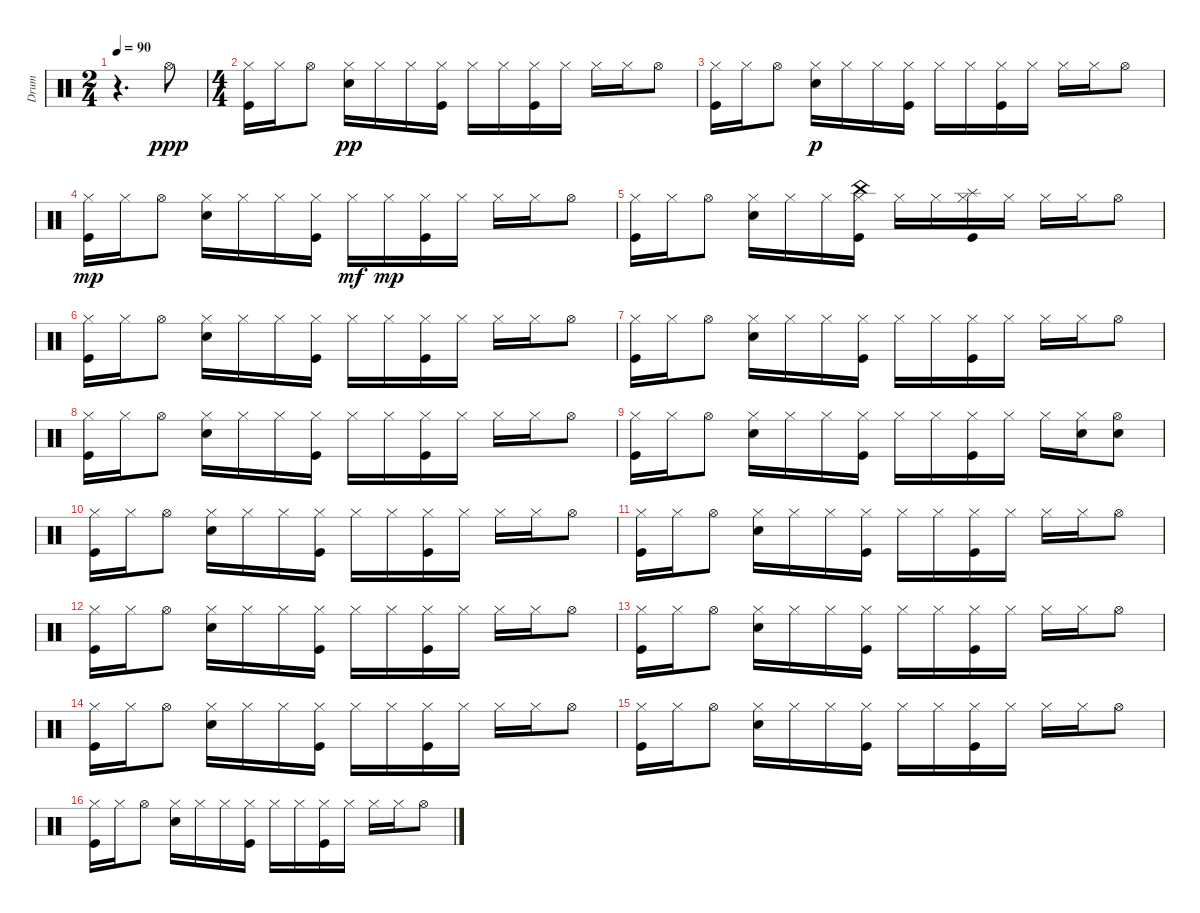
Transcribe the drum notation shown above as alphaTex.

\track ("Drum" "Drum") {instrument percussion}
\staff {score}
\articulation defaults
\ts (2 4)
\tempo 90
\clef neutral
\ks c
r.4{d dy ppp} "Hi-Hat (open)".8 |
\ts (4 4)
("Hi-Hat (closed)" "Kick (hit)").16 "Hi-Hat (closed)".16 "Hi-Hat (open)".8 ("Hi-Hat (closed)" "Snare (hit) 2").16{dy pp} "Hi-Hat (closed)".16 "Hi-Hat (closed)".16 ("Hi-Hat (closed)" "Kick (hit)").16 "Hi-Hat (closed)".16 "Hi-Hat (closed)".16 ("Hi-Hat (closed)" "Kick (hit)").16 "Hi-Hat (closed)".16 "Hi-Hat (closed)".16 "Hi-Hat (closed)".16 "Hi-Hat (open)".8 |
("Kick (hit)" "Hi-Hat (closed)").16 "Hi-Hat (closed)".16 "Hi-Hat (open)".8 ("Snare (hit) 2" "Hi-Hat (closed)").16{dy p} "Hi-Hat (closed)".16 "Hi-Hat (closed)".16 ("Kick (hit)" "Hi-Hat (closed)").16 "Hi-Hat (closed)".16 "Hi-Hat (closed)".16 ("Kick (hit)" "Hi-Hat (closed)").16 "Hi-Hat (closed)".16 "Hi-Hat (closed)".16 "Hi-Hat (closed)".16 "Hi-Hat (open)".8 |
("Hi-Hat (closed)" "Kick (hit)").16{dy mp} "Hi-Hat (closed)".16 "Hi-Hat (open)".8 ("Hi-Hat (closed)" "Snare (hit) 2").16 "Hi-Hat (closed)".16 "Hi-Hat (closed)".16 ("Hi-Hat (closed)" "Kick (hit)").16 "Hi-Hat (closed)".16{dy mf} "Hi-Hat (closed)".16{dy mp} ("Hi-Hat (closed)" "Kick (hit)").16 "Hi-Hat (closed)".16 "Hi-Hat (closed)".16 "Hi-Hat (closed)".16 "Hi-Hat (open)".8 |
("Hi-Hat (closed)" "Kick (hit)").16 "Hi-Hat (closed)".16 "Hi-Hat (open)".8 ("Hi-Hat (closed)" "Snare (hit) 2").16 "Hi-Hat (closed)".16 "Hi-Hat (closed)".16 ("China (hit)" "Hi-Hat (closed)" "Kick (hit)").16 "Hi-Hat (closed)".16 "Hi-Hat (closed)".16 ("Splash (hit)" "Hi-Hat (closed)" "Kick (hit)").16 "Hi-Hat (closed)".16 "Hi-Hat (closed)".16 "Hi-Hat (closed)".16 "Hi-Hat (open)".8 |
("Hi-Hat (closed)" "Kick (hit)").16 "Hi-Hat (closed)".16 "Hi-Hat (open)".8 ("Hi-Hat (closed)" "Snare (hit) 2").16 "Hi-Hat (closed)".16 "Hi-Hat (closed)".16 ("Kick (hit)" "Hi-Hat (closed)").16 "Hi-Hat (closed)".16 "Hi-Hat (closed)".16 ("Kick (hit)" "Hi-Hat (closed)").16 "Hi-Hat (closed)".16 "Hi-Hat (closed)".16 "Hi-Hat (closed)".16 "Hi-Hat (open)".8 |
("Kick (hit)" "Hi-Hat (closed)").16 "Hi-Hat (closed)".16 "Hi-Hat (open)".8 ("Hi-Hat (closed)" "Snare (hit) 2").16 "Hi-Hat (closed)".16 "Hi-Hat (closed)".16 ("Kick (hit)" "Hi-Hat (closed)").16 "Hi-Hat (closed)".16 "Hi-Hat (closed)".16 ("Kick (hit)" "Hi-Hat (closed)").16 "Hi-Hat (closed)".16 "Hi-Hat (closed)".16 "Hi-Hat (closed)".16 "Hi-Hat (open)".8 |
("Kick (hit)" "Hi-Hat (closed)").16 "Hi-Hat (closed)".16 "Hi-Hat (open)".8 ("Snare (hit) 2" "Hi-Hat (closed)").16 "Hi-Hat (closed)".16 "Hi-Hat (closed)".16 ("Kick (hit)" "Hi-Hat (closed)").16 "Hi-Hat (closed)".16 "Hi-Hat (closed)".16 ("Kick (hit)" "Hi-Hat (closed)").16 "Hi-Hat (closed)".16 "Hi-Hat (closed)".16 "Hi-Hat (closed)".16 "Hi-Hat (open)".8 |
("Hi-Hat (closed)" "Kick (hit)").16 "Hi-Hat (closed)".16 "Hi-Hat (open)".8 ("Hi-Hat (closed)" "Snare (hit) 2").16 "Hi-Hat (closed)".16 "Hi-Hat (closed)".16 ("Hi-Hat (closed)" "Kick (hit)").16 "Hi-Hat (closed)".16 "Hi-Hat (closed)".16 ("Hi-Hat (closed)" "Kick (hit)").16 "Hi-Hat (closed)".16 "Hi-Hat (closed)".16 ("Snare (hit) 2" "Hi-Hat (closed)").16 ("Snare (hit) 2" "Hi-Hat (open)").8 |
("Kick (hit)" "Hi-Hat (closed)").16 "Hi-Hat (closed)".16 "Hi-Hat (open)".8 ("Hi-Hat (closed)" "Snare (hit) 2").16 "Hi-Hat (closed)".16 "Hi-Hat (closed)".16 ("Hi-Hat (closed)" "Kick (hit)").16 "Hi-Hat (closed)".16 "Hi-Hat (closed)".16 ("Hi-Hat (closed)" "Kick (hit)").16 "Hi-Hat (closed)".16 "Hi-Hat (closed)".16 "Hi-Hat (closed)".16 "Hi-Hat (open)".8 |
("Kick (hit)" "Hi-Hat (closed)").16 "Hi-Hat (closed)".16 "Hi-Hat (open)".8 ("Snare (hit) 2" "Hi-Hat (closed)").16 "Hi-Hat (closed)".16 "Hi-Hat (closed)".16 ("Kick (hit)" "Hi-Hat (closed)").16 "Hi-Hat (closed)".16 "Hi-Hat (closed)".16 ("Kick (hit)" "Hi-Hat (closed)").16 "Hi-Hat (closed)".16 "Hi-Hat (closed)".16 "Hi-Hat (closed)".16 "Hi-Hat (open)".8 |
("Kick (hit)" "Hi-Hat (closed)").16 "Hi-Hat (closed)".16 "Hi-Hat (open)".8 ("Snare (hit) 2" "Hi-Hat (closed)").16 "Hi-Hat (closed)".16 "Hi-Hat (closed)".16 ("Kick (hit)" "Hi-Hat (closed)").16 "Hi-Hat (closed)".16 "Hi-Hat (closed)".16 ("Kick (hit)" "Hi-Hat (closed)").16 "Hi-Hat (closed)".16 "Hi-Hat (closed)".16 "Hi-Hat (closed)".16 "Hi-Hat (open)".8 |
("Hi-Hat (closed)" "Kick (hit)").16 "Hi-Hat (closed)".16 "Hi-Hat (open)".8 ("Hi-Hat (closed)" "Snare (hit) 2").16 "Hi-Hat (closed)".16 "Hi-Hat (closed)".16 ("Hi-Hat (closed)" "Kick (hit)").16 "Hi-Hat (closed)".16 "Hi-Hat (closed)".16 ("Hi-Hat (closed)" "Kick (hit)").16 "Hi-Hat (closed)".16 "Hi-Hat (closed)".16 "Hi-Hat (closed)".16 "Hi-Hat (open)".8 |
("Kick (hit)" "Hi-Hat (closed)").16 "Hi-Hat (closed)".16 "Hi-Hat (open)".8 ("Snare (hit) 2" "Hi-Hat (closed)").16 "Hi-Hat (closed)".16 "Hi-Hat (closed)".16 ("Hi-Hat (closed)" "Kick (hit)").16 "Hi-Hat (closed)".16 "Hi-Hat (closed)".16 ("Hi-Hat (closed)" "Kick (hit)").16 "Hi-Hat (closed)".16 "Hi-Hat (closed)".16 "Hi-Hat (closed)".16 "Hi-Hat (open)".8 |
("Kick (hit)" "Hi-Hat (closed)").16 "Hi-Hat (closed)".16 "Hi-Hat (open)".8 ("Snare (hit) 2" "Hi-Hat (closed)").16 "Hi-Hat (closed)".16 "Hi-Hat (closed)".16 ("Hi-Hat (closed)" "Kick (hit)").16 "Hi-Hat (closed)".16 "Hi-Hat (closed)".16 ("Kick (hit)" "Hi-Hat (closed)").16 "Hi-Hat (closed)".16 "Hi-Hat (closed)".16 "Hi-Hat (closed)".16 "Hi-Hat (open)".8 |
("Kick (hit)" "Hi-Hat (closed)").16 "Hi-Hat (closed)".16 "Hi-Hat (open)".8 ("Snare (hit) 2" "Hi-Hat (closed)").16 "Hi-Hat (closed)".16 "Hi-Hat (closed)".16 ("Hi-Hat (closed)" "Kick (hit)").16 "Hi-Hat (closed)".16 "Hi-Hat (closed)".16 ("Kick (hit)" "Hi-Hat (closed)").16 "Hi-Hat (closed)".16 "Hi-Hat (closed)".16 "Hi-Hat (closed)".16 "Hi-Hat (open)".8
